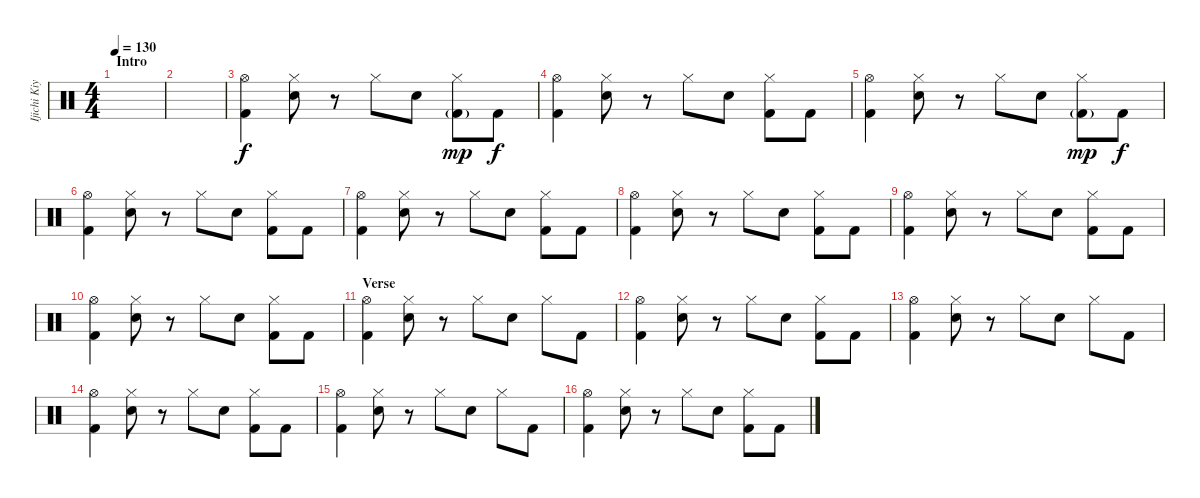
\track ("Ijichi Kiyoshi (Drums)" "Ijichi Kiy") {instrument percussion}
\staff {score}
\articulation defaults
\ts (4 4)
\section ("" "Intro")
\tempo 130
\clef neutral
\ks c
|
|
("Hi-Hat (open)" "Kick (hit) 2").4 ("Hi-Hat (closed)" "Snare (hit) 2").8 r.8 "Hi-Hat (closed)".8 "Snare (hit) 2".8 ("Hi-Hat (closed)" "Kick (hit) 2"{g}).8{dy mp} "Kick (hit) 2".8{dy f} |
("Hi-Hat (open)" "Kick (hit) 2").4 ("Hi-Hat (closed)" "Snare (hit) 2").8 r.8 "Hi-Hat (closed)".8 "Snare (hit) 2".8 ("Hi-Hat (closed)" "Kick (hit) 2").8 "Kick (hit) 2".8 |
("Hi-Hat (open)" "Kick (hit) 2").4 ("Hi-Hat (closed)" "Snare (hit) 2").8 r.8 "Hi-Hat (closed)".8 "Snare (hit) 2".8 ("Hi-Hat (closed)" "Kick (hit) 2"{g}).8{dy mp} "Kick (hit) 2".8{dy f} |
("Hi-Hat (open)" "Kick (hit) 2").4 ("Hi-Hat (closed)" "Snare (hit) 2").8 r.8 "Hi-Hat (closed)".8 "Snare (hit) 2".8 ("Hi-Hat (closed)" "Kick (hit) 2").8 "Kick (hit) 2".8 |
("Hi-Hat (open)" "Kick (hit) 2").4 ("Hi-Hat (closed)" "Snare (hit) 2").8 r.8 "Hi-Hat (closed)".8 "Snare (hit) 2".8 ("Hi-Hat (closed)" "Kick (hit) 2").8 "Kick (hit) 2".8 |
("Hi-Hat (open)" "Kick (hit) 2").4 ("Hi-Hat (closed)" "Snare (hit) 2").8 r.8 "Hi-Hat (closed)".8 "Snare (hit) 2".8 ("Hi-Hat (closed)" "Kick (hit) 2").8 "Kick (hit) 2".8 |
("Hi-Hat (open)" "Kick (hit) 2").4 ("Hi-Hat (closed)" "Snare (hit) 2").8 r.8 "Hi-Hat (closed)".8 "Snare (hit) 2".8 ("Hi-Hat (closed)" "Kick (hit) 2").8 "Kick (hit) 2".8 |
("Hi-Hat (open)" "Kick (hit) 2").4 ("Hi-Hat (closed)" "Snare (hit) 2").8 r.8 "Hi-Hat (closed)".8 "Snare (hit) 2".8 ("Hi-Hat (closed)" "Kick (hit) 2").8 "Kick (hit) 2".8 |
\section ("" "Verse")
("Hi-Hat (open)" "Kick (hit) 2").4 ("Hi-Hat (closed)" "Snare (hit) 2").8 r.8 "Hi-Hat (closed)".8 "Snare (hit) 2".8 "Hi-Hat (closed)".8 "Kick (hit) 2".8 |
("Hi-Hat (open)" "Kick (hit) 2").4 ("Hi-Hat (closed)" "Snare (hit) 2").8 r.8 "Hi-Hat (closed)".8 "Snare (hit) 2".8 ("Hi-Hat (closed)" "Kick (hit) 2").8 "Kick (hit) 2".8 |
("Hi-Hat (open)" "Kick (hit) 2").4 ("Hi-Hat (closed)" "Snare (hit) 2").8 r.8 "Hi-Hat (closed)".8 "Snare (hit) 2".8 "Hi-Hat (closed)".8 "Kick (hit) 2".8 |
("Hi-Hat (open)" "Kick (hit) 2").4 ("Hi-Hat (closed)" "Snare (hit) 2").8 r.8 "Hi-Hat (closed)".8 "Snare (hit) 2".8 ("Hi-Hat (closed)" "Kick (hit) 2").8 "Kick (hit) 2".8 |
("Hi-Hat (open)" "Kick (hit) 2").4 ("Hi-Hat (closed)" "Snare (hit) 2").8 r.8 "Hi-Hat (closed)".8 "Snare (hit) 2".8 "Hi-Hat (closed)".8 "Kick (hit) 2".8 |
("Hi-Hat (open)" "Kick (hit) 2").4 ("Hi-Hat (closed)" "Snare (hit) 2").8 r.8 "Hi-Hat (closed)".8 "Snare (hit) 2".8 ("Hi-Hat (closed)" "Kick (hit) 2").8 "Kick (hit) 2".8
